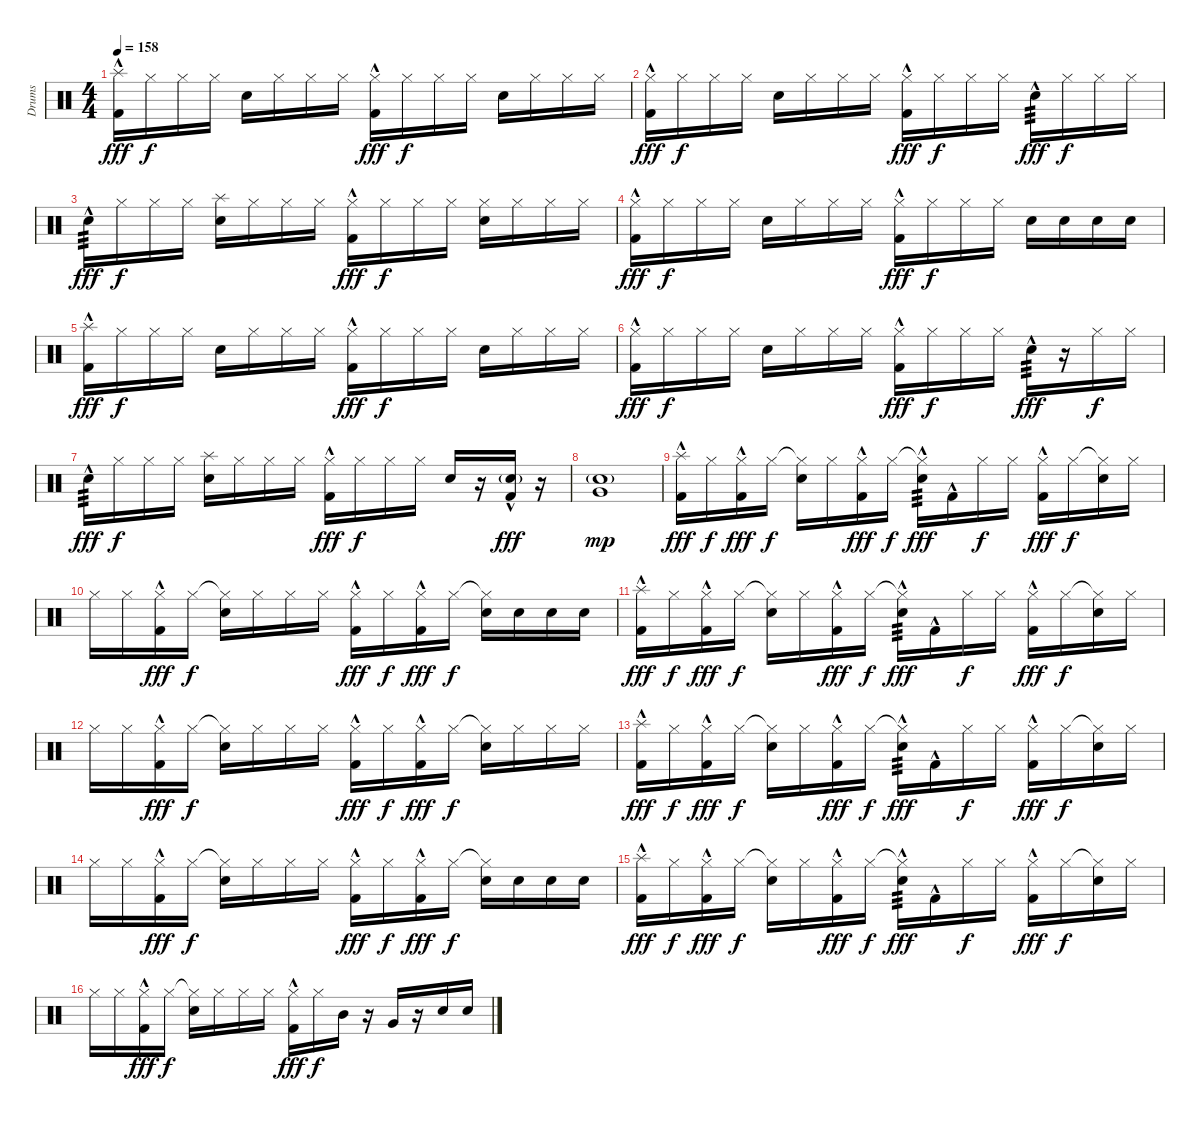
\track ("Drums" "Drums") {instrument percussion}
\staff {score}
\articulation defaults
\ts (4 4)
\tempo 158
\clef neutral
\ks c
("Splash (hit)" "Kick (hit) 2"{hac}).16{dy fff} "Hi-Hat (closed)".16{dy f} "Hi-Hat (closed)".16 "Hi-Hat (closed)".16 "Electric Snare (hit)".16 "Hi-Hat (closed)".16 "Hi-Hat (closed)".16 "Hi-Hat (closed)".16 ("Hi-Hat (closed)" "Kick (hit) 2"{hac}).16{dy fff} "Hi-Hat (closed)".16{dy f} "Hi-Hat (closed)".16 "Hi-Hat (closed)".16 "Electric Snare (hit)".16 "Hi-Hat (closed)".16 "Hi-Hat (closed)".16 "Hi-Hat (closed)".16 |
("Hi-Hat (closed)" "Kick (hit) 2"{hac}).16{dy fff} "Hi-Hat (closed)".16{dy f} "Hi-Hat (closed)".16 "Hi-Hat (closed)".16 "Electric Snare (hit)".16 "Hi-Hat (closed)".16 "Hi-Hat (closed)".16 "Hi-Hat (closed)".16 ("Hi-Hat (closed)" "Kick (hit) 2"{hac}).16{dy fff} "Hi-Hat (closed)".16{dy f} "Hi-Hat (closed)".16 "Hi-Hat (closed)".16 "Electric Snare (hit)"{hac}.16{tp 3 dy fff} "Hi-Hat (closed)".16{dy f} "Hi-Hat (closed)".16 "Hi-Hat (closed)".16 |
"Electric Snare (hit)"{hac}.16{tp 3 dy fff} "Hi-Hat (closed)".16{dy f} "Hi-Hat (closed)".16 "Hi-Hat (closed)".16 ("Splash (hit)" "Electric Snare (hit)").16 "Hi-Hat (closed)".16 "Hi-Hat (closed)".16 "Hi-Hat (closed)".16 ("Hi-Hat (closed)" "Kick (hit) 2"{hac}).16{dy fff} "Hi-Hat (closed)".16{dy f} "Hi-Hat (closed)".16 "Hi-Hat (closed)".16 ("Hi-Hat (closed)" "Electric Snare (hit)").16 "Hi-Hat (closed)".16 "Hi-Hat (closed)".16 "Hi-Hat (closed)".16 |
("Hi-Hat (closed)" "Kick (hit) 2"{hac}).16{dy fff} "Hi-Hat (closed)".16{dy f} "Hi-Hat (closed)".16 "Hi-Hat (closed)".16 "Electric Snare (hit)".16 "Hi-Hat (closed)".16 "Hi-Hat (closed)".16 "Hi-Hat (closed)".16 ("Hi-Hat (closed)" "Kick (hit) 2"{hac}).16{dy fff} "Hi-Hat (closed)".16{dy f} "Hi-Hat (closed)".16 "Hi-Hat (closed)".16 "Electric Snare (hit)".16 "Electric Snare (hit)".16 "Electric Snare (hit)".16 "Electric Snare (hit)".16 |
("Splash (hit)" "Kick (hit) 2"{hac}).16{dy fff} "Hi-Hat (closed)".16{dy f} "Hi-Hat (closed)".16 "Hi-Hat (closed)".16 "Electric Snare (hit)".16 "Hi-Hat (closed)".16 "Hi-Hat (closed)".16 "Hi-Hat (closed)".16 ("Hi-Hat (closed)" "Kick (hit) 2"{hac}).16{dy fff} "Hi-Hat (closed)".16{dy f} "Hi-Hat (closed)".16 "Hi-Hat (closed)".16 "Electric Snare (hit)".16 "Hi-Hat (closed)".16 "Hi-Hat (closed)".16 "Hi-Hat (closed)".16 |
("Hi-Hat (closed)" "Kick (hit) 2"{hac}).16{dy fff} "Hi-Hat (closed)".16{dy f} "Hi-Hat (closed)".16 "Hi-Hat (closed)".16 "Electric Snare (hit)".16 "Hi-Hat (closed)".16 "Hi-Hat (closed)".16 "Hi-Hat (closed)".16 ("Hi-Hat (closed)" "Kick (hit) 2"{hac}).16{dy fff} "Hi-Hat (closed)".16{dy f} "Hi-Hat (closed)".16 "Hi-Hat (closed)".16 "Electric Snare (hit)"{hac}.16{tp 3 dy fff} r.16 "Hi-Hat (closed)".16{dy f} "Hi-Hat (closed)".16 |
"Electric Snare (hit)"{hac}.16{tp 3 dy fff} "Hi-Hat (closed)".16{dy f} "Hi-Hat (closed)".16 "Hi-Hat (closed)".16 ("Splash (hit)" "Electric Snare (hit)").16 "Hi-Hat (closed)".16 "Hi-Hat (closed)".16 "Hi-Hat (closed)".16 ("Hi-Hat (closed)" "Kick (hit) 2"{hac}).16{dy fff} "Hi-Hat (closed)".16{dy f} "Hi-Hat (closed)".16 "Hi-Hat (closed)".16 "Electric Snare (hit)".16 r.16 ("Electric Snare (hit)"{g} "Kick (hit) 2"{hac}).16{dy fff} r.16 |
("Electric Snare (hit)"{g} "Very Low Tom (hit)").1{dy mp} |
("Splash (hit)" "Kick (hit) 2"{hac}).16{dy fff} "Hi-Hat (closed)".16{dy f} ("Hi-Hat (closed)" "Kick (hit) 2"{hac}).16{dy fff} "Hi-Hat (closed)".16{dy f} ("Hi-Hat (closed)"{t} "Electric Snare (hit)").16 "Hi-Hat (closed)".16 ("Hi-Hat (closed)" "Kick (hit) 2"{hac}).16{dy fff} "Hi-Hat (closed)".16{dy f} ("Hi-Hat (closed)"{t} "Electric Snare (hit)"{hac}).16{tp 3 dy fff} "Kick (hit) 2"{hac}.16 "Hi-Hat (closed)".16{dy f} "Hi-Hat (closed)".16 ("Hi-Hat (closed)" "Kick (hit) 2"{hac}).16{dy fff} "Hi-Hat (closed)".16{dy f} ("Hi-Hat (closed)"{t} "Electric Snare (hit)").16 "Hi-Hat (closed)".16 |
"Hi-Hat (closed)".16 "Hi-Hat (closed)".16 ("Hi-Hat (closed)" "Kick (hit) 2"{hac}).16{dy fff} "Hi-Hat (closed)".16{dy f} ("Hi-Hat (closed)"{t} "Electric Snare (hit)").16 "Hi-Hat (closed)".16 "Hi-Hat (closed)".16 "Hi-Hat (closed)".16 ("Hi-Hat (closed)" "Kick (hit) 2"{hac}).16{dy fff} "Hi-Hat (closed)".16{dy f} ("Hi-Hat (closed)" "Kick (hit) 2"{hac}).16{dy fff} "Hi-Hat (closed)".16{dy f} ("Hi-Hat (closed)"{t} "Electric Snare (hit)").16 "Electric Snare (hit)".16 "Electric Snare (hit)".16 "Electric Snare (hit)".16 |
("Splash (hit)" "Kick (hit) 2"{hac}).16{dy fff} "Hi-Hat (closed)".16{dy f} ("Hi-Hat (closed)" "Kick (hit) 2"{hac}).16{dy fff} "Hi-Hat (closed)".16{dy f} ("Hi-Hat (closed)"{t} "Electric Snare (hit)").16 "Hi-Hat (closed)".16 ("Hi-Hat (closed)" "Kick (hit) 2"{hac}).16{dy fff} "Hi-Hat (closed)".16{dy f} ("Hi-Hat (closed)"{t} "Electric Snare (hit)"{hac}).16{tp 3 dy fff} "Kick (hit) 2"{hac}.16 "Hi-Hat (closed)".16{dy f} "Hi-Hat (closed)".16 ("Hi-Hat (closed)" "Kick (hit) 2"{hac}).16{dy fff} "Hi-Hat (closed)".16{dy f} ("Hi-Hat (closed)"{t} "Electric Snare (hit)").16 "Hi-Hat (closed)".16 |
"Hi-Hat (closed)".16 "Hi-Hat (closed)".16 ("Hi-Hat (closed)" "Kick (hit) 2"{hac}).16{dy fff} "Hi-Hat (closed)".16{dy f} ("Hi-Hat (closed)"{t} "Electric Snare (hit)").16 "Hi-Hat (closed)".16 "Hi-Hat (closed)".16 "Hi-Hat (closed)".16 ("Hi-Hat (closed)" "Kick (hit) 2"{hac}).16{dy fff} "Hi-Hat (closed)".16{dy f} ("Hi-Hat (closed)" "Kick (hit) 2"{hac}).16{dy fff} "Hi-Hat (closed)".16{dy f} ("Hi-Hat (closed)"{t} "Electric Snare (hit)").16 "Hi-Hat (closed)".16 "Hi-Hat (closed)".16 "Hi-Hat (closed)".16 |
("Splash (hit)" "Kick (hit) 2"{hac}).16{dy fff} "Hi-Hat (closed)".16{dy f} ("Hi-Hat (closed)" "Kick (hit) 2"{hac}).16{dy fff} "Hi-Hat (closed)".16{dy f} ("Hi-Hat (closed)"{t} "Electric Snare (hit)").16 "Hi-Hat (closed)".16 ("Hi-Hat (closed)" "Kick (hit) 2"{hac}).16{dy fff} "Hi-Hat (closed)".16{dy f} ("Hi-Hat (closed)"{t} "Electric Snare (hit)"{hac}).16{tp 3 dy fff} "Kick (hit) 2"{hac}.16 "Hi-Hat (closed)".16{dy f} "Hi-Hat (closed)".16 ("Hi-Hat (closed)" "Kick (hit) 2"{hac}).16{dy fff} "Hi-Hat (closed)".16{dy f} ("Hi-Hat (closed)"{t} "Electric Snare (hit)").16 "Hi-Hat (closed)".16 |
"Hi-Hat (closed)".16 "Hi-Hat (closed)".16 ("Hi-Hat (closed)" "Kick (hit) 2"{hac}).16{dy fff} "Hi-Hat (closed)".16{dy f} ("Hi-Hat (closed)"{t} "Electric Snare (hit)").16 "Hi-Hat (closed)".16 "Hi-Hat (closed)".16 "Hi-Hat (closed)".16 ("Hi-Hat (closed)" "Kick (hit) 2"{hac}).16{dy fff} "Hi-Hat (closed)".16{dy f} ("Hi-Hat (closed)" "Kick (hit) 2"{hac}).16{dy fff} "Hi-Hat (closed)".16{dy f} ("Hi-Hat (closed)"{t} "Electric Snare (hit)").16 "Electric Snare (hit)".16 "Electric Snare (hit)".16 "Electric Snare (hit)".16 |
("Splash (hit)" "Kick (hit) 2"{hac}).16{dy fff} "Hi-Hat (closed)".16{dy f} ("Hi-Hat (closed)" "Kick (hit) 2"{hac}).16{dy fff} "Hi-Hat (closed)".16{dy f} ("Hi-Hat (closed)"{t} "Electric Snare (hit)").16 "Hi-Hat (closed)".16 ("Hi-Hat (closed)" "Kick (hit) 2"{hac}).16{dy fff} "Hi-Hat (closed)".16{dy f} ("Hi-Hat (closed)"{t} "Electric Snare (hit)"{hac}).16{tp 3 dy fff} "Kick (hit) 2"{hac}.16 "Hi-Hat (closed)".16{dy f} "Hi-Hat (closed)".16 ("Hi-Hat (closed)" "Kick (hit) 2"{hac}).16{dy fff} "Hi-Hat (closed)".16{dy f} ("Hi-Hat (closed)"{t} "Electric Snare (hit)").16 "Hi-Hat (closed)".16 |
"Hi-Hat (closed)".16 "Hi-Hat (closed)".16 ("Hi-Hat (closed)" "Kick (hit) 2"{hac}).16{dy fff} "Hi-Hat (closed)".16{dy f} ("Hi-Hat (closed)"{t} "Electric Snare (hit)").16 "Hi-Hat (closed)".16 "Hi-Hat (closed)".16 "Hi-Hat (closed)".16 ("Hi-Hat (closed)" "Kick (hit) 2"{hac}).16{dy fff} "Hi-Hat (closed)".16{dy f} "Mid Tom (hit)".16 r.16 "Very Low Tom (hit)".16 r.16 "Electric Snare (hit)".16 "Electric Snare (hit)".16
